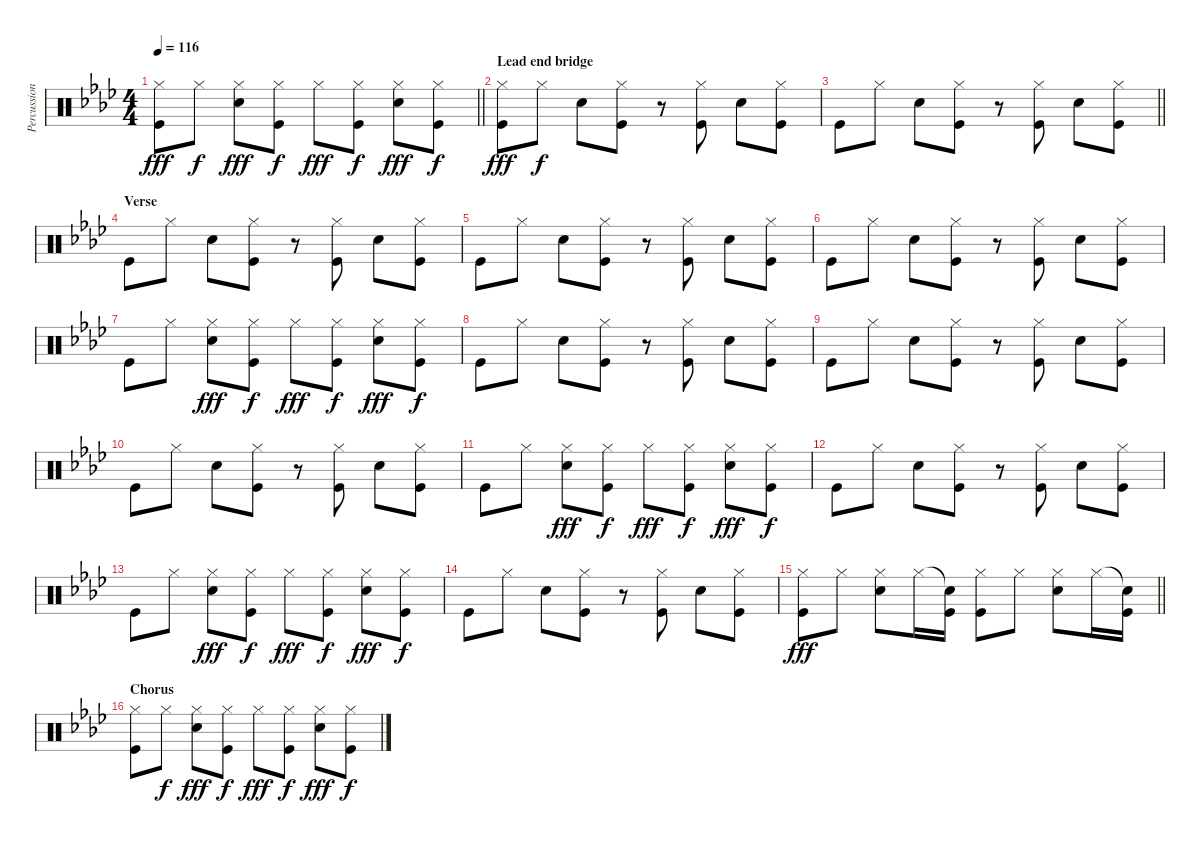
\track ("Percussion" "Percussion") {instrument percussion}
\staff {score}
\articulation defaults
\ts (4 4)
\tempo 116
\clef neutral
\barLineRight lightlight
\ks fminor
("Hi-Hat (closed)" "Kick (hit)").8{dy fff} "Hi-Hat (closed)".8{dy f} ("Hi-Hat (closed)" "Electric Snare (hit)").8{dy fff} ("Hi-Hat (closed)" "Kick (hit)").8{dy f} "Hi-Hat (closed)".8{dy fff} ("Hi-Hat (closed)" "Kick (hit)").8{dy f} ("Hi-Hat (closed)" "Electric Snare (hit)").8{dy fff} ("Hi-Hat (closed)" "Kick (hit)").8{dy f} |
\section ("" "Lead end bridge")
("Hi-Hat (closed)" "Kick (hit)").8{dy fff} "Hi-Hat (closed)".8{dy f} "Electric Snare (hit)".8 ("Hi-Hat (closed)" "Kick (hit)").8 r.8 ("Hi-Hat (closed)" "Kick (hit)").8 "Electric Snare (hit)".8 ("Hi-Hat (closed)" "Kick (hit)").8 |
\barLineRight lightlight "Kick (hit)".8 "Hi-Hat (closed)".8 "Electric Snare (hit)".8
("Hi-Hat (closed)" "Kick (hit)").8 r.8 ("Hi-Hat (closed)" "Kick (hit)").8 "Electric Snare (hit)".8 ("Hi-Hat (closed)" "Kick (hit)").8 |
\section ("" "Verse")
"Kick (hit)".8 "Hi-Hat (closed)".8 "Electric Snare (hit)".8 ("Hi-Hat (closed)" "Kick (hit)").8 r.8 ("Hi-Hat (closed)" "Kick (hit)").8 "Electric Snare (hit)".8 ("Hi-Hat (closed)" "Kick (hit)").8 |
"Kick (hit)".8 "Hi-Hat (closed)".8 "Electric Snare (hit)".8 ("Hi-Hat (closed)" "Kick (hit)").8 r.8 ("Hi-Hat (closed)" "Kick (hit)").8 "Electric Snare (hit)".8 ("Hi-Hat (closed)" "Kick (hit)").8 |
"Kick (hit)".8 "Hi-Hat (closed)".8 "Electric Snare (hit)".8 ("Hi-Hat (closed)" "Kick (hit)").8 r.8 ("Hi-Hat (closed)" "Kick (hit)").8 "Electric Snare (hit)".8 ("Hi-Hat (closed)" "Kick (hit)").8 |
"Kick (hit)".8 "Hi-Hat (closed)".8 ("Hi-Hat (closed)" "Electric Snare (hit)").8{dy fff} ("Hi-Hat (closed)" "Kick (hit)").8{dy f} "Hi-Hat (closed)".8{dy fff} ("Hi-Hat (closed)" "Kick (hit)").8{dy f} ("Hi-Hat (closed)" "Electric Snare (hit)").8{dy fff} ("Hi-Hat (closed)" "Kick (hit)").8{dy f} |
"Kick (hit)".8 "Hi-Hat (closed)".8 "Electric Snare (hit)".8 ("Hi-Hat (closed)" "Kick (hit)").8 r.8 ("Hi-Hat (closed)" "Kick (hit)").8 "Electric Snare (hit)".8 ("Hi-Hat (closed)" "Kick (hit)").8 |
"Kick (hit)".8 "Hi-Hat (closed)".8 "Electric Snare (hit)".8 ("Hi-Hat (closed)" "Kick (hit)").8 r.8 ("Hi-Hat (closed)" "Kick (hit)").8 "Electric Snare (hit)".8 ("Hi-Hat (closed)" "Kick (hit)").8 |
"Kick (hit)".8 "Hi-Hat (closed)".8 "Electric Snare (hit)".8 ("Hi-Hat (closed)" "Kick (hit)").8 r.8 ("Hi-Hat (closed)" "Kick (hit)").8 "Electric Snare (hit)".8 ("Hi-Hat (closed)" "Kick (hit)").8 |
"Kick (hit)".8 "Hi-Hat (closed)".8 ("Hi-Hat (closed)" "Electric Snare (hit)").8{dy fff} ("Hi-Hat (closed)" "Kick (hit)").8{dy f} "Hi-Hat (closed)".8{dy fff} ("Hi-Hat (closed)" "Kick (hit)").8{dy f} ("Hi-Hat (closed)" "Electric Snare (hit)").8{dy fff} ("Hi-Hat (closed)" "Kick (hit)").8{dy f} |
"Kick (hit)".8 "Hi-Hat (closed)".8 "Electric Snare (hit)".8 ("Hi-Hat (closed)" "Kick (hit)").8 r.8 ("Hi-Hat (closed)" "Kick (hit)").8 "Electric Snare (hit)".8 ("Hi-Hat (closed)" "Kick (hit)").8 |
"Kick (hit)".8 "Hi-Hat (closed)".8 ("Hi-Hat (closed)" "Electric Snare (hit)").8{dy fff} ("Hi-Hat (closed)" "Kick (hit)").8{dy f} "Hi-Hat (closed)".8{dy fff} ("Hi-Hat (closed)" "Kick (hit)").8{dy f} ("Hi-Hat (closed)" "Electric Snare (hit)").8{dy fff} ("Hi-Hat (closed)" "Kick (hit)").8{dy f} |
"Kick (hit)".8 "Hi-Hat (closed)".8 "Electric Snare (hit)".8 ("Hi-Hat (closed)" "Kick (hit)").8 r.8 ("Hi-Hat (closed)" "Kick (hit)").8 "Electric Snare (hit)".8 ("Hi-Hat (closed)" "Kick (hit)").8 |
\barLineRight lightlight
("Hi-Hat (closed)" "Kick (hit)").8{dy fff} "Hi-Hat (closed)".8 ("Hi-Hat (closed)" "Snare (hit) 2").8 "Hi-Hat (closed)".16 ("Snare (hit)"{t} "Kick (hit)").16 ("Hi-Hat (closed)" "Kick (hit)").8 "Hi-Hat (closed)".8 ("Hi-Hat (closed)" "Snare (hit) 2").8 "Hi-Hat (closed)".16 ("Snare (hit)"{t} "Kick (hit)").16 |
\section ("" "Chorus")
("Hi-Hat (closed)" "Kick (hit)").8 "Hi-Hat (closed)".8{dy f} ("Hi-Hat (closed)" "Electric Snare (hit)").8{dy fff} ("Hi-Hat (closed)" "Kick (hit)").8{dy f} "Hi-Hat (closed)".8{dy fff} ("Hi-Hat (closed)" "Kick (hit)").8{dy f} ("Hi-Hat (closed)" "Electric Snare (hit)").8{dy fff} ("Hi-Hat (closed)" "Kick (hit)").8{dy f}
